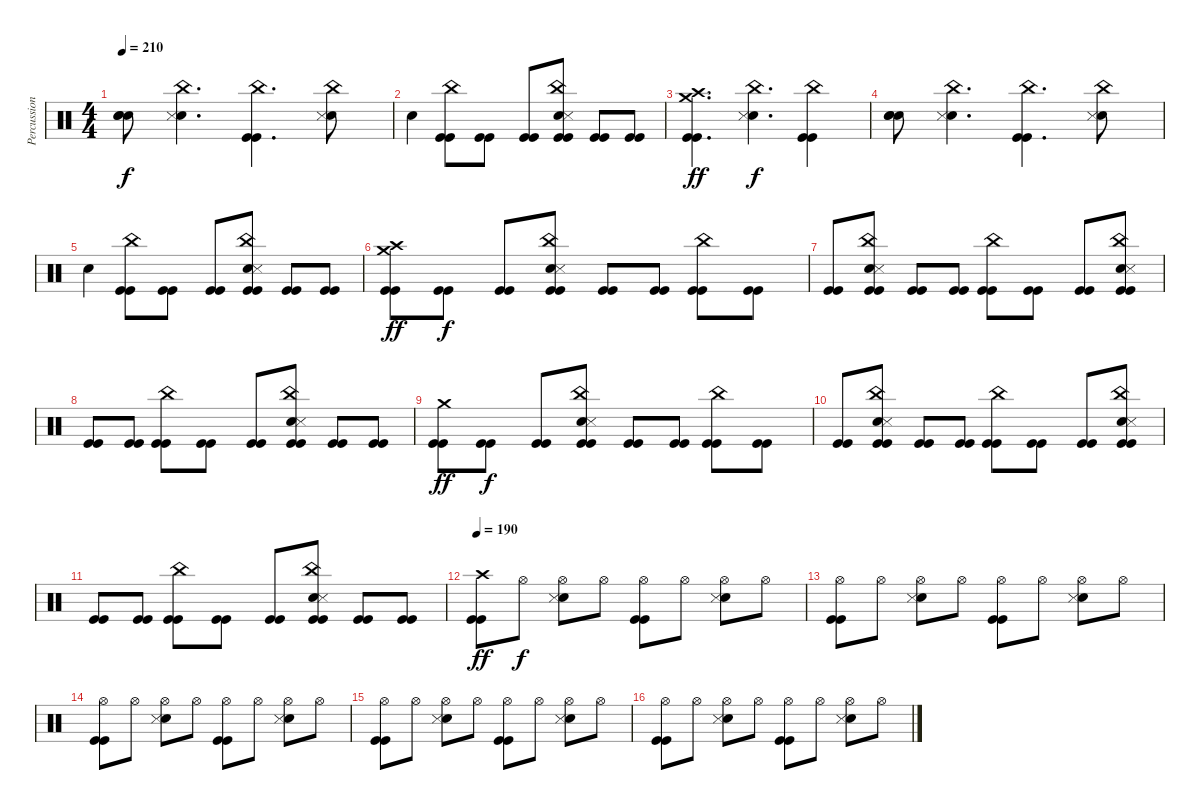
\track ("Percussion" "Percussion") {instrument percussion}
\staff {score}
\articulation defaults
\ts (4 4)
\tempo 210
\clef neutral
\ks c
("Snare (hit)" "Snare (hit)" "Snare (hit)").8{dy f} ("China (hit)" "Snare (hit) 2" "Snare (side stick) 3").4{d} ("China (hit)" "Kick (hit)" "Kick (hit)").4{d} ("China (hit)" "Snare (hit) 2" "Snare (side stick) 3").8 |
"Snare (hit)".4 ("China (hit)" "Kick (hit)" "Kick (hit)").8 ("Kick (hit)" "Kick (hit)").8 ("Kick (hit)" "Kick (hit)").8 ("China (hit)" "Snare (hit) 2" "Snare (side stick) 3" "Kick (hit)" "Kick (hit)").8 ("Kick (hit)" "Kick (hit)").8 ("Kick (hit)" "Kick (hit)").8 |
("Crash medium (hit)" "Crash high (hit)" "Kick (hit)" "Kick (hit)").4{d dy ff} ("China (hit)" "Snare (hit) 2" "Snare (side stick) 3").4{d dy f} ("China (hit)" "Kick (hit)" "Kick (hit)").4 |
("Snare (hit)" "Snare (hit)" "Snare (hit)").8 ("China (hit)" "Snare (hit) 2" "Snare (side stick) 3").4{d} ("China (hit)" "Kick (hit)" "Kick (hit)").4{d} ("China (hit)" "Snare (hit) 2" "Snare (side stick) 3").8 |
"Snare (hit)".4 ("China (hit)" "Kick (hit)" "Kick (hit)").8 ("Kick (hit)" "Kick (hit)").8 ("Kick (hit)" "Kick (hit)").8 ("China (hit)" "Snare (hit) 2" "Snare (side stick) 3" "Kick (hit)" "Kick (hit)").8 ("Kick (hit)" "Kick (hit)").8 ("Kick (hit)" "Kick (hit)").8 |
("Crash medium (hit)" "Crash high (hit)" "Kick (hit)" "Kick (hit)").8{dy ff} ("Kick (hit)" "Kick (hit)").8{dy f} ("Kick (hit)" "Kick (hit)").8 ("China (hit)" "Snare (hit) 2" "Snare (side stick) 3" "Kick (hit)" "Kick (hit)").8 ("Kick (hit)" "Kick (hit)").8 ("Kick (hit)" "Kick (hit)").8 ("China (hit)" "Kick (hit)" "Kick (hit)").8 ("Kick (hit)" "Kick (hit)").8 |
("Kick (hit)" "Kick (hit)").8 ("China (hit)" "Snare (hit) 2" "Snare (side stick) 3" "Kick (hit)" "Kick (hit)").8 ("Kick (hit)" "Kick (hit)").8 ("Kick (hit)" "Kick (hit)").8 ("China (hit)" "Kick (hit)" "Kick (hit)").8 ("Kick (hit)" "Kick (hit)").8 ("Kick (hit)" "Kick (hit)").8 ("China (hit)" "Snare (hit) 2" "Snare (side stick) 3" "Kick (hit)" "Kick (hit)").8 |
("Kick (hit)" "Kick (hit)").8 ("Kick (hit)" "Kick (hit)").8 ("China (hit)" "Kick (hit)" "Kick (hit)").8 ("Kick (hit)" "Kick (hit)").8 ("Kick (hit)" "Kick (hit)").8 ("China (hit)" "Snare (hit) 2" "Snare (side stick) 3" "Kick (hit)" "Kick (hit)").8 ("Kick (hit)" "Kick (hit)").8 ("Kick (hit)" "Kick (hit)").8 |
("Crash medium (hit)" "Kick (hit)" "Kick (hit)").8{dy ff} ("Kick (hit)" "Kick (hit)").8{dy f} ("Kick (hit)" "Kick (hit)").8 ("China (hit)" "Snare (hit) 2" "Snare (side stick) 3" "Kick (hit)" "Kick (hit)").8 ("Kick (hit)" "Kick (hit)").8 ("Kick (hit)" "Kick (hit)").8 ("China (hit)" "Kick (hit)" "Kick (hit)").8 ("Kick (hit)" "Kick (hit)").8 |
("Kick (hit)" "Kick (hit)").8 ("China (hit)" "Snare (hit) 2" "Snare (side stick) 3" "Kick (hit)" "Kick (hit)").8 ("Kick (hit)" "Kick (hit)").8 ("Kick (hit)" "Kick (hit)").8 ("China (hit)" "Kick (hit)" "Kick (hit)").8 ("Kick (hit)" "Kick (hit)").8 ("Kick (hit)" "Kick (hit)").8 ("China (hit)" "Snare (hit) 2" "Snare (side stick) 3" "Kick (hit)" "Kick (hit)").8 |
("Kick (hit)" "Kick (hit)").8 ("Kick (hit)" "Kick (hit)").8 ("China (hit)" "Kick (hit)" "Kick (hit)").8 ("Kick (hit)" "Kick (hit)").8 ("Kick (hit)" "Kick (hit)").8 ("China (hit)" "Snare (hit) 2" "Snare (side stick) 3" "Kick (hit)" "Kick (hit)").8 ("Kick (hit)" "Kick (hit)").8 ("Kick (hit)" "Kick (hit)").8 |
\tempo 190
("Crash high (hit)" "Kick (hit)" "Kick (hit)").8{dy ff} "Hi-Hat (open)".8{dy f} ("Hi-Hat (open)" "Snare (hit) 2" "Snare (side stick) 3").8 "Hi-Hat (open)".8 ("Hi-Hat (open)" "Kick (hit)" "Kick (hit)").8 "Hi-Hat (open)".8 ("Hi-Hat (open)" "Snare (hit) 2" "Snare (side stick) 3").8 "Hi-Hat (open)".8 |
("Hi-Hat (open)" "Kick (hit)" "Kick (hit)").8 "Hi-Hat (open)".8 ("Hi-Hat (open)" "Snare (hit) 2" "Snare (side stick) 3").8 "Hi-Hat (open)".8 ("Hi-Hat (open)" "Kick (hit)" "Kick (hit)").8 "Hi-Hat (open)".8 ("Hi-Hat (open)" "Snare (hit) 2" "Snare (side stick) 3").8 "Hi-Hat (open)".8 |
("Hi-Hat (open)" "Kick (hit)" "Kick (hit)").8 "Hi-Hat (open)".8 ("Hi-Hat (open)" "Snare (hit) 2" "Snare (side stick) 3").8 "Hi-Hat (open)".8 ("Hi-Hat (open)" "Kick (hit)" "Kick (hit)").8 "Hi-Hat (open)".8 ("Hi-Hat (open)" "Snare (hit) 2" "Snare (side stick) 3").8 "Hi-Hat (open)".8 |
("Hi-Hat (open)" "Kick (hit)" "Kick (hit)").8 "Hi-Hat (open)".8 ("Hi-Hat (open)" "Snare (hit) 2" "Snare (side stick) 3").8 "Hi-Hat (open)".8 ("Hi-Hat (open)" "Kick (hit)" "Kick (hit)").8 "Hi-Hat (open)".8 ("Hi-Hat (open)" "Snare (hit) 2" "Snare (side stick) 3").8 "Hi-Hat (open)".8 |
("Hi-Hat (open)" "Kick (hit)" "Kick (hit)").8 "Hi-Hat (open)".8 ("Hi-Hat (open)" "Snare (hit) 2" "Snare (side stick) 3").8 "Hi-Hat (open)".8 ("Hi-Hat (open)" "Kick (hit)" "Kick (hit)").8 "Hi-Hat (open)".8 ("Hi-Hat (open)" "Snare (hit) 2" "Snare (side stick) 3").8 "Hi-Hat (open)".8
